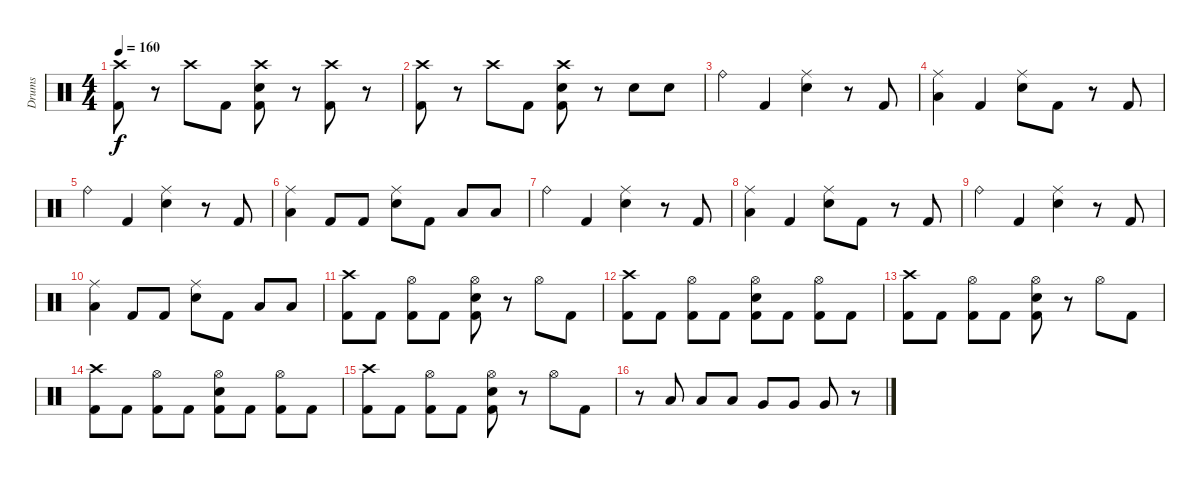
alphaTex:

\track ("Drums" "Drums") {instrument percussion}
\staff {score}
\articulation defaults
\ts (4 4)
\tempo 160
\clef neutral
\ks c
("Crash high (hit)" "Kick (hit) 2").8{dy f} r.8 "Crash high (hit)".8 "Kick (hit) 2".8 ("Crash high (hit)" "Electric Snare (hit)" "Kick (hit) 2").8 r.8 ("Crash high (hit)" "Kick (hit) 2").8 r.8 |
("Crash high (hit)" "Kick (hit) 2").8 r.8 "Crash high (hit)".8 "Kick (hit) 2".8 ("Crash high (hit)" "Electric Snare (hit)" "Kick (hit) 2").8 r.8 "Electric Snare (hit)".8 "Electric Snare (hit)".8 |
\section ("" " ")
"Ride (bell)".4 "Kick (hit) 2".4 ("Ride (middle)" "Electric Snare (hit)").4 r.8 "Kick (hit) 2".8 |
("Ride (middle)" "Low Tom (hit)").4 "Kick (hit) 2".4 ("Ride (middle)" "Electric Snare (hit)").8 "Kick (hit) 2".8 r.8 "Kick (hit) 2".8 |
"Ride (bell)".4 "Kick (hit) 2".4 ("Ride (middle)" "Electric Snare (hit)").4 r.8 "Kick (hit) 2".8 |
("Ride (middle)" "Low Tom (hit)").4 "Kick (hit) 2".8 "Kick (hit) 2".8 ("Ride (middle)" "Electric Snare (hit)").8 "Kick (hit) 2".8 "Low Tom (hit)".8 "Low Tom (hit)".8 |
"Ride (bell)".4 "Kick (hit) 2".4 ("Ride (middle)" "Electric Snare (hit)").4 r.8 "Kick (hit) 2".8 |
("Ride (middle)" "Low Tom (hit)").4 "Kick (hit) 2".4 ("Ride (middle)" "Electric Snare (hit)").8 "Kick (hit) 2".8 r.8 "Kick (hit) 2".8 |
"Ride (bell)".4 "Kick (hit) 2".4 ("Ride (middle)" "Electric Snare (hit)").4 r.8 "Kick (hit) 2".8 |
("Ride (middle)" "Low Tom (hit)").4 "Kick (hit) 2".8 "Kick (hit) 2".8 ("Ride (middle)" "Electric Snare (hit)").8 "Kick (hit) 2".8 "Low Tom (hit)".8 "Low Tom (hit)".8 |
("Crash high (hit)" "Kick (hit) 2").8 "Kick (hit) 2".8 ("Hi-Hat (open)" "Kick (hit) 2").8 "Kick (hit) 2".8 ("Hi-Hat (open)" "Electric Snare (hit)" "Kick (hit) 2").8 r.8 "Hi-Hat (open)".8 "Kick (hit) 2".8 |
("Crash high (hit)" "Kick (hit) 2").8 "Kick (hit) 2".8 ("Hi-Hat (open)" "Kick (hit) 2").8 "Kick (hit) 2".8 ("Hi-Hat (open)" "Electric Snare (hit)" "Kick (hit) 2").8 "Kick (hit) 2".8 ("Hi-Hat (open)" "Kick (hit) 2").8 "Kick (hit) 2".8 |
("Crash high (hit)" "Kick (hit) 2").8 "Kick (hit) 2".8 ("Hi-Hat (open)" "Kick (hit) 2").8 "Kick (hit) 2".8 ("Hi-Hat (open)" "Electric Snare (hit)" "Kick (hit) 2").8 r.8 "Hi-Hat (open)".8 "Kick (hit) 2".8 |
("Crash high (hit)" "Kick (hit) 2").8 "Kick (hit) 2".8 ("Hi-Hat (open)" "Kick (hit) 2").8 "Kick (hit) 2".8 ("Hi-Hat (open)" "Electric Snare (hit)" "Kick (hit) 2").8 "Kick (hit) 2".8 ("Hi-Hat (open)" "Kick (hit) 2").8 "Kick (hit) 2".8 |
("Crash high (hit)" "Kick (hit) 2").8 "Kick (hit) 2".8 ("Hi-Hat (open)" "Kick (hit) 2").8 "Kick (hit) 2".8 ("Hi-Hat (open)" "Electric Snare (hit)" "Kick (hit) 2").8 r.8 "Hi-Hat (open)".8 "Kick (hit) 2".8 |
r.8 "Low Tom (hit)".8 "Low Tom (hit)".8 "Low Tom (hit)".8 "Very Low Tom (hit)".8 "Very Low Tom (hit)".8 "Very Low Tom (hit)".8 r.8
